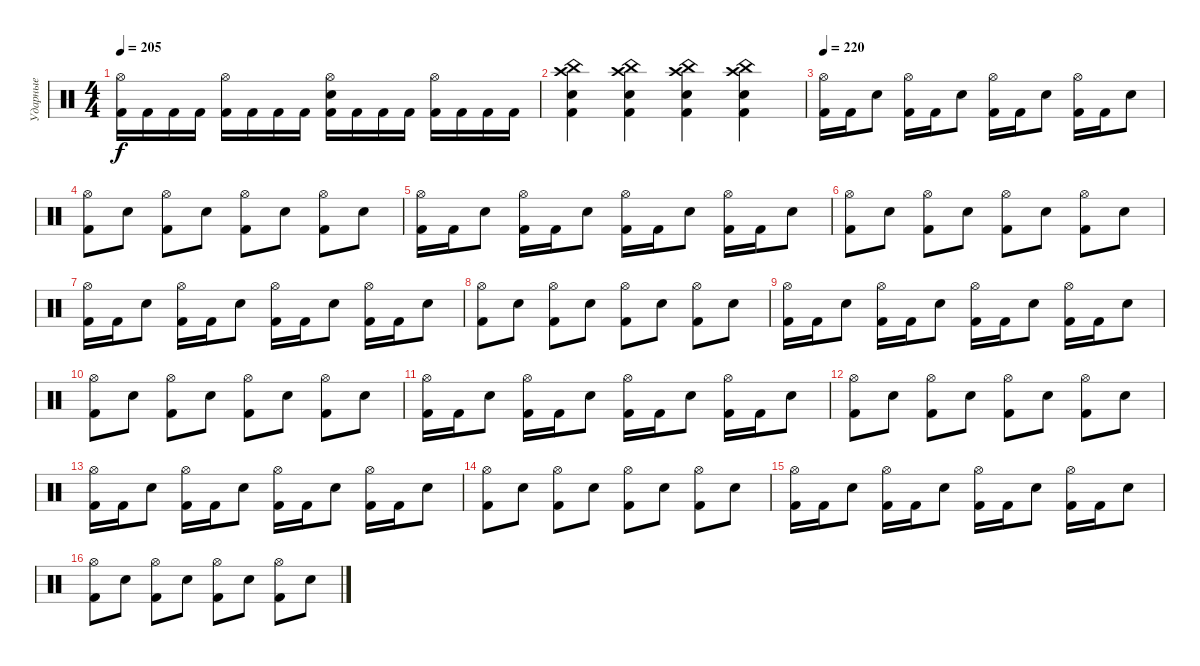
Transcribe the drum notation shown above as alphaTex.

\track ("Ударные" "Ударные") {instrument percussion}
\staff {score}
\articulation defaults
\ts (4 4)
\tempo 205
\clef neutral
\ks c
("Hi-Hat (open)" "Kick (hit) 2").16{dy f} "Kick (hit) 2".16 "Kick (hit) 2".16 "Kick (hit) 2".16 ("Hi-Hat (open)" "Kick (hit) 2").16 "Kick (hit) 2".16 "Kick (hit) 2".16 "Kick (hit) 2".16 ("Hi-Hat (open)" "Electric Snare (hit)" "Kick (hit) 2").16 "Kick (hit) 2".16 "Kick (hit) 2".16 "Kick (hit) 2".16 ("Hi-Hat (open)" "Kick (hit) 2").16 "Kick (hit) 2".16 "Kick (hit) 2".16 "Kick (hit) 2".16 |
("Kick (hit) 2" "Electric Snare (hit)" "Crash high (hit)" "China (hit)").4 ("China (hit)" "Crash high (hit)" "Kick (hit) 2" "Electric Snare (hit)").4 ("Electric Snare (hit)" "Kick (hit) 2" "Crash high (hit)" "China (hit)").4 ("China (hit)" "Crash high (hit)" "Kick (hit) 2" "Electric Snare (hit)").4 |
\tempo 220
("Kick (hit) 2" "Hi-Hat (open)").16 "Kick (hit) 2".16 "Electric Snare (hit)".8 ("Kick (hit) 2" "Hi-Hat (open)").16 "Kick (hit) 2".16 "Electric Snare (hit)".8 ("Kick (hit) 2" "Hi-Hat (open)").16 "Kick (hit) 2".16 "Electric Snare (hit)".8 ("Kick (hit) 2" "Hi-Hat (open)").16 "Kick (hit) 2".16 "Electric Snare (hit)".8 |
("Kick (hit) 2" "Hi-Hat (open)").8 "Electric Snare (hit)".8 ("Kick (hit) 2" "Hi-Hat (open)").8 "Electric Snare (hit)".8 ("Kick (hit) 2" "Hi-Hat (open)").8 "Electric Snare (hit)".8 ("Kick (hit) 2" "Hi-Hat (open)").8 "Electric Snare (hit)".8 |
("Kick (hit) 2" "Hi-Hat (open)").16 "Kick (hit) 2".16 "Electric Snare (hit)".8 ("Kick (hit) 2" "Hi-Hat (open)").16 "Kick (hit) 2".16 "Electric Snare (hit)".8 ("Kick (hit) 2" "Hi-Hat (open)").16 "Kick (hit) 2".16 "Electric Snare (hit)".8 ("Kick (hit) 2" "Hi-Hat (open)").16 "Kick (hit) 2".16 "Electric Snare (hit)".8 |
("Kick (hit) 2" "Hi-Hat (open)").8 "Electric Snare (hit)".8 ("Kick (hit) 2" "Hi-Hat (open)").8 "Electric Snare (hit)".8 ("Kick (hit) 2" "Hi-Hat (open)").8 "Electric Snare (hit)".8 ("Kick (hit) 2" "Hi-Hat (open)").8 "Electric Snare (hit)".8 |
("Kick (hit) 2" "Hi-Hat (open)").16 "Kick (hit) 2".16 "Electric Snare (hit)".8 ("Kick (hit) 2" "Hi-Hat (open)").16 "Kick (hit) 2".16 "Electric Snare (hit)".8 ("Kick (hit) 2" "Hi-Hat (open)").16 "Kick (hit) 2".16 "Electric Snare (hit)".8 ("Kick (hit) 2" "Hi-Hat (open)").16 "Kick (hit) 2".16 "Electric Snare (hit)".8 |
("Kick (hit) 2" "Hi-Hat (open)").8 "Electric Snare (hit)".8 ("Kick (hit) 2" "Hi-Hat (open)").8 "Electric Snare (hit)".8 ("Kick (hit) 2" "Hi-Hat (open)").8 "Electric Snare (hit)".8 ("Kick (hit) 2" "Hi-Hat (open)").8 "Electric Snare (hit)".8 |
("Kick (hit) 2" "Hi-Hat (open)").16 "Kick (hit) 2".16 "Electric Snare (hit)".8 ("Kick (hit) 2" "Hi-Hat (open)").16 "Kick (hit) 2".16 "Electric Snare (hit)".8 ("Kick (hit) 2" "Hi-Hat (open)").16 "Kick (hit) 2".16 "Electric Snare (hit)".8 ("Kick (hit) 2" "Hi-Hat (open)").16 "Kick (hit) 2".16 "Electric Snare (hit)".8 |
("Kick (hit) 2" "Hi-Hat (open)").8 "Electric Snare (hit)".8 ("Kick (hit) 2" "Hi-Hat (open)").8 "Electric Snare (hit)".8 ("Kick (hit) 2" "Hi-Hat (open)").8 "Electric Snare (hit)".8 ("Kick (hit) 2" "Hi-Hat (open)").8 "Electric Snare (hit)".8 |
("Kick (hit) 2" "Hi-Hat (open)").16 "Kick (hit) 2".16 "Electric Snare (hit)".8 ("Kick (hit) 2" "Hi-Hat (open)").16 "Kick (hit) 2".16 "Electric Snare (hit)".8 ("Kick (hit) 2" "Hi-Hat (open)").16 "Kick (hit) 2".16 "Electric Snare (hit)".8 ("Kick (hit) 2" "Hi-Hat (open)").16 "Kick (hit) 2".16 "Electric Snare (hit)".8 |
("Kick (hit) 2" "Hi-Hat (open)").8 "Electric Snare (hit)".8 ("Kick (hit) 2" "Hi-Hat (open)").8 "Electric Snare (hit)".8 ("Kick (hit) 2" "Hi-Hat (open)").8 "Electric Snare (hit)".8 ("Kick (hit) 2" "Hi-Hat (open)").8 "Electric Snare (hit)".8 |
("Kick (hit) 2" "Hi-Hat (open)").16 "Kick (hit) 2".16 "Electric Snare (hit)".8 ("Kick (hit) 2" "Hi-Hat (open)").16 "Kick (hit) 2".16 "Electric Snare (hit)".8 ("Kick (hit) 2" "Hi-Hat (open)").16 "Kick (hit) 2".16 "Electric Snare (hit)".8 ("Kick (hit) 2" "Hi-Hat (open)").16 "Kick (hit) 2".16 "Electric Snare (hit)".8 |
("Kick (hit) 2" "Hi-Hat (open)").8 "Electric Snare (hit)".8 ("Kick (hit) 2" "Hi-Hat (open)").8 "Electric Snare (hit)".8 ("Kick (hit) 2" "Hi-Hat (open)").8 "Electric Snare (hit)".8 ("Kick (hit) 2" "Hi-Hat (open)").8 "Electric Snare (hit)".8 |
("Kick (hit) 2" "Hi-Hat (open)").16 "Kick (hit) 2".16 "Electric Snare (hit)".8 ("Kick (hit) 2" "Hi-Hat (open)").16 "Kick (hit) 2".16 "Electric Snare (hit)".8 ("Kick (hit) 2" "Hi-Hat (open)").16 "Kick (hit) 2".16 "Electric Snare (hit)".8 ("Kick (hit) 2" "Hi-Hat (open)").16 "Kick (hit) 2".16 "Electric Snare (hit)".8 |
("Kick (hit) 2" "Hi-Hat (open)").8 "Electric Snare (hit)".8 ("Kick (hit) 2" "Hi-Hat (open)").8 "Electric Snare (hit)".8 ("Kick (hit) 2" "Hi-Hat (open)").8 "Electric Snare (hit)".8 ("Kick (hit) 2" "Hi-Hat (open)").8 "Electric Snare (hit)".8
